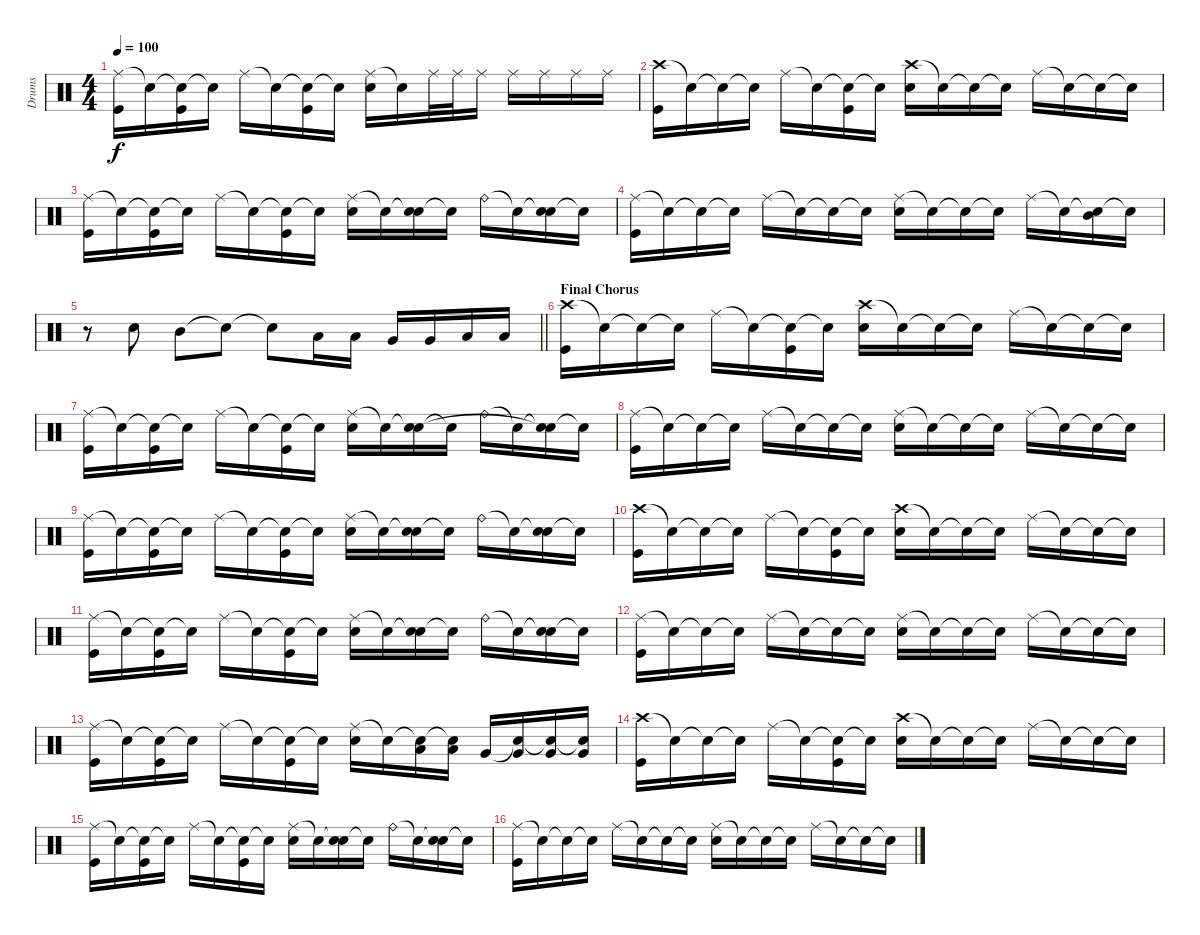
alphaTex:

\track ("Drums" "Drums") {instrument percussion}
\staff {score}
\articulation defaults
\ts (4 4)
\tempo 100
\clef neutral
\ks c
("Ride (middle)" "Kick (hit)").16{dy f} "Snare (hit)"{t}.16 ("Snare (hit)"{t} "Kick (hit)").16 "Snare (hit)"{t}.16 "Ride (middle)".16 "Snare (hit)"{t}.16 ("Snare (hit)"{t} "Kick (hit)").16 "Snare (hit)"{t}.16 ("Ride (middle)" "Electric Snare (hit)").16 "Snare (hit)"{t}.16 "Ride (middle)".32 "Ride (middle)".32 "Ride (middle)".16 "Ride (middle)".16 "Ride (middle)".16 "Ride (middle)".16 "Ride (middle)".16 |
("Crash high (hit)" "Kick (hit)").16 "Snare (hit)"{t}.16 "Snare (hit)"{t}.16 "Snare (hit)"{t}.16 "Ride (middle)".16 "Snare (hit)"{t}.16 ("Snare (hit)"{t} "Kick (hit)").16 "Snare (hit)"{t}.16 ("Crash high (hit)" "Electric Snare (hit)").16 "Snare (hit)"{t}.16 "Snare (hit)"{t}.16 "Snare (hit)"{t}.16 "Ride (middle)".16 "Snare (hit)"{t}.16 "Snare (hit)"{t}.16 "Snare (hit)"{t}.16 |
("Ride (middle)" "Kick (hit)").16 "Snare (hit)"{t}.16 ("Snare (hit)"{t} "Kick (hit)").16 "Snare (hit)"{t}.16 "Ride (middle)".16 "Snare (hit)"{t}.16 ("Snare (hit)"{t} "Kick (hit)").16 "Snare (hit)"{t}.16 ("Ride (middle)" "Electric Snare (hit)").16 "Snare (hit)"{t}.16 ("Snare (hit)"{t} "Electric Snare (hit)").16 "Snare (hit)"{t}.16 "Ride (bell)".16 "Snare (hit)"{t}.16 ("Snare (hit)"{t} "Electric Snare (hit)").16 "Snare (hit)"{t}.16 |
("Ride (middle)" "Kick (hit)").16 "Snare (hit)"{t}.16 "Snare (hit)"{t}.16 "Snare (hit)"{t}.16 "Ride (middle)".16 "Snare (hit)"{t}.16 "Snare (hit)"{t}.16 "Snare (hit)"{t}.16 ("Ride (middle)" "Electric Snare (hit)").16 "Snare (hit)"{t}.16 "Snare (hit)"{t}.16 "Snare (hit)"{t}.16 "Ride (middle)".16 "Snare (hit)"{t}.16 ("Snare (hit)"{t} "Mid Tom (hit)").16 "Snare (hit)"{t}.16 |
\barLineRight lightlight
r.8 "Electric Snare (hit)".8 "Mid Tom (hit)".8 "Snare (hit)"{t}.8 "Snare (hit)"{t}.8 "Low Tom (hit)".16 "Low Tom (hit)".16 "Very Low Tom (hit)".16 "Very Low Tom (hit)".16 "Low Floor Tom (hit)".16 "Low Floor Tom (hit)".16 |
\section ("" "Final Chorus")
("Crash high (hit)" "Kick (hit)").16 "Snare (hit)"{t}.16 "Snare (hit)"{t}.16 "Snare (hit)"{t}.16 "Ride (middle)".16 "Snare (hit)"{t}.16 ("Snare (hit)"{t} "Kick (hit)").16 "Snare (hit)"{t}.16 ("Crash high (hit)" "Electric Snare (hit)").16 "Snare (hit)"{t}.16 "Snare (hit)"{t}.16 "Snare (hit)"{t}.16 "Ride (middle)".16 "Snare (hit)"{t}.16 "Snare (hit)"{t}.16 "Snare (hit)"{t}.16 |
("Ride (middle)" "Kick (hit)").16 "Snare (hit)"{t}.16 ("Snare (hit)"{t} "Kick (hit)").16 "Snare (hit)"{t}.16 "Ride (middle)".16 "Snare (hit)"{t}.16 ("Snare (hit)"{t} "Kick (hit)").16 "Snare (hit)"{t}.16 ("Ride (middle)" "Electric Snare (hit)").16 "Snare (hit)"{t}.16 ("Snare (hit)"{t} "Electric Snare (hit)").16 "Snare (hit)"{t}.16 "Ride (bell)".16 "Snare (hit)"{t}.16 ("Snare (hit)"{t} "Electric Snare (hit)"{t}).16 "Snare (hit)"{t}.16 |
("Ride (middle)" "Kick (hit)").16 "Snare (hit)"{t}.16 "Snare (hit)"{t}.16 "Snare (hit)"{t}.16 "Ride (middle)".16 "Snare (hit)"{t}.16 "Snare (hit)"{t}.16 "Snare (hit)"{t}.16 ("Ride (middle)" "Electric Snare (hit)").16 "Snare (hit)"{t}.16 "Snare (hit)"{t}.16 "Snare (hit)"{t}.16 "Ride (middle)".16 "Snare (hit)"{t}.16 "Snare (hit)"{t}.16 "Snare (hit)"{t}.16 |
("Ride (middle)" "Kick (hit)").16 "Snare (hit)"{t}.16 ("Snare (hit)"{t} "Kick (hit)").16 "Snare (hit)"{t}.16 "Ride (middle)".16 "Snare (hit)"{t}.16 ("Snare (hit)"{t} "Kick (hit)").16 "Snare (hit)"{t}.16 ("Ride (middle)" "Electric Snare (hit)").16 "Snare (hit)"{t}.16 ("Snare (hit)"{t} "Electric Snare (hit)").16 "Snare (hit)"{t}.16 "Ride (bell)".16 "Snare (hit)"{t}.16 ("Snare (hit)"{t} "Electric Snare (hit)").16 "Snare (hit)"{t}.16 |
("Crash high (hit)" "Kick (hit)").16 "Snare (hit)"{t}.16 "Snare (hit)"{t}.16 "Snare (hit)"{t}.16 "Ride (middle)".16 "Snare (hit)"{t}.16 ("Snare (hit)"{t} "Kick (hit)").16 "Snare (hit)"{t}.16 ("Crash high (hit)" "Electric Snare (hit)").16 "Snare (hit)"{t}.16 "Snare (hit)"{t}.16 "Snare (hit)"{t}.16 "Ride (middle)".16 "Snare (hit)"{t}.16 "Snare (hit)"{t}.16 "Snare (hit)"{t}.16 |
("Ride (middle)" "Kick (hit)").16 "Snare (hit)"{t}.16 ("Snare (hit)"{t} "Kick (hit)").16 "Snare (hit)"{t}.16 "Ride (middle)".16 "Snare (hit)"{t}.16 ("Snare (hit)"{t} "Kick (hit)").16 "Snare (hit)"{t}.16 ("Ride (middle)" "Electric Snare (hit)").16 "Snare (hit)"{t}.16 ("Snare (hit)"{t} "Electric Snare (hit)").16 "Snare (hit)"{t}.16 "Ride (bell)".16 "Snare (hit)"{t}.16 ("Snare (hit)"{t} "Electric Snare (hit)").16 "Snare (hit)"{t}.16 |
("Ride (middle)" "Kick (hit)").16 "Snare (hit)"{t}.16 "Snare (hit)"{t}.16 "Snare (hit)"{t}.16 "Ride (middle)".16 "Snare (hit)"{t}.16 "Snare (hit)"{t}.16 "Snare (hit)"{t}.16 ("Ride (middle)" "Electric Snare (hit)").16 "Snare (hit)"{t}.16 "Snare (hit)"{t}.16 "Snare (hit)"{t}.16 "Ride (middle)".16 "Snare (hit)"{t}.16 "Snare (hit)"{t}.16 "Snare (hit)"{t}.16 |
("Ride (middle)" "Kick (hit)").16 "Snare (hit)"{t}.16 ("Snare (hit)"{t} "Kick (hit)").16 "Snare (hit)"{t}.16 "Ride (middle)".16 "Snare (hit)"{t}.16 ("Snare (hit)"{t} "Kick (hit)").16 "Snare (hit)"{t}.16 ("Ride (middle)" "Electric Snare (hit)").16 "Snare (hit)"{t}.16 ("Snare (hit)"{t} "Low Tom (hit)").16 ("Snare (hit)"{t} "Low Tom (hit)").16 "Very Low Tom (hit)".16 ("Snare (hit)"{t} "Very Low Tom (hit)").16 ("Snare (hit)"{t} "Very Low Tom (hit)").16 ("Snare (hit)"{t} "Very Low Tom (hit)").16 |
("Crash high (hit)" "Kick (hit)").16 "Snare (hit)"{t}.16 "Snare (hit)"{t}.16 "Snare (hit)"{t}.16 "Ride (middle)".16 "Snare (hit)"{t}.16 ("Snare (hit)"{t} "Kick (hit)").16 "Snare (hit)"{t}.16 ("Crash high (hit)" "Electric Snare (hit)").16 "Snare (hit)"{t}.16 "Snare (hit)"{t}.16 "Snare (hit)"{t}.16 "Ride (middle)".16 "Snare (hit)"{t}.16 "Snare (hit)"{t}.16 "Snare (hit)"{t}.16 |
("Ride (middle)" "Kick (hit)").16 "Snare (hit)"{t}.16 ("Snare (hit)"{t} "Kick (hit)").16 "Snare (hit)"{t}.16 "Ride (middle)".16 "Snare (hit)"{t}.16 ("Snare (hit)"{t} "Kick (hit)").16 "Snare (hit)"{t}.16 ("Ride (middle)" "Electric Snare (hit)").16 "Snare (hit)"{t}.16 ("Snare (hit)"{t} "Electric Snare (hit)").16 "Snare (hit)"{t}.16 "Ride (bell)".16 "Snare (hit)"{t}.16 ("Snare (hit)"{t} "Electric Snare (hit)").16 "Snare (hit)"{t}.16 |
("Ride (middle)" "Kick (hit)").16 "Snare (hit)"{t}.16 "Snare (hit)"{t}.16 "Snare (hit)"{t}.16 "Ride (middle)".16 "Snare (hit)"{t}.16 "Snare (hit)"{t}.16 "Snare (hit)"{t}.16 ("Ride (middle)" "Electric Snare (hit)").16 "Snare (hit)"{t}.16 "Snare (hit)"{t}.16 "Snare (hit)"{t}.16 "Ride (middle)".16 "Snare (hit)"{t}.16 "Snare (hit)"{t}.16 "Snare (hit)"{t}.16
